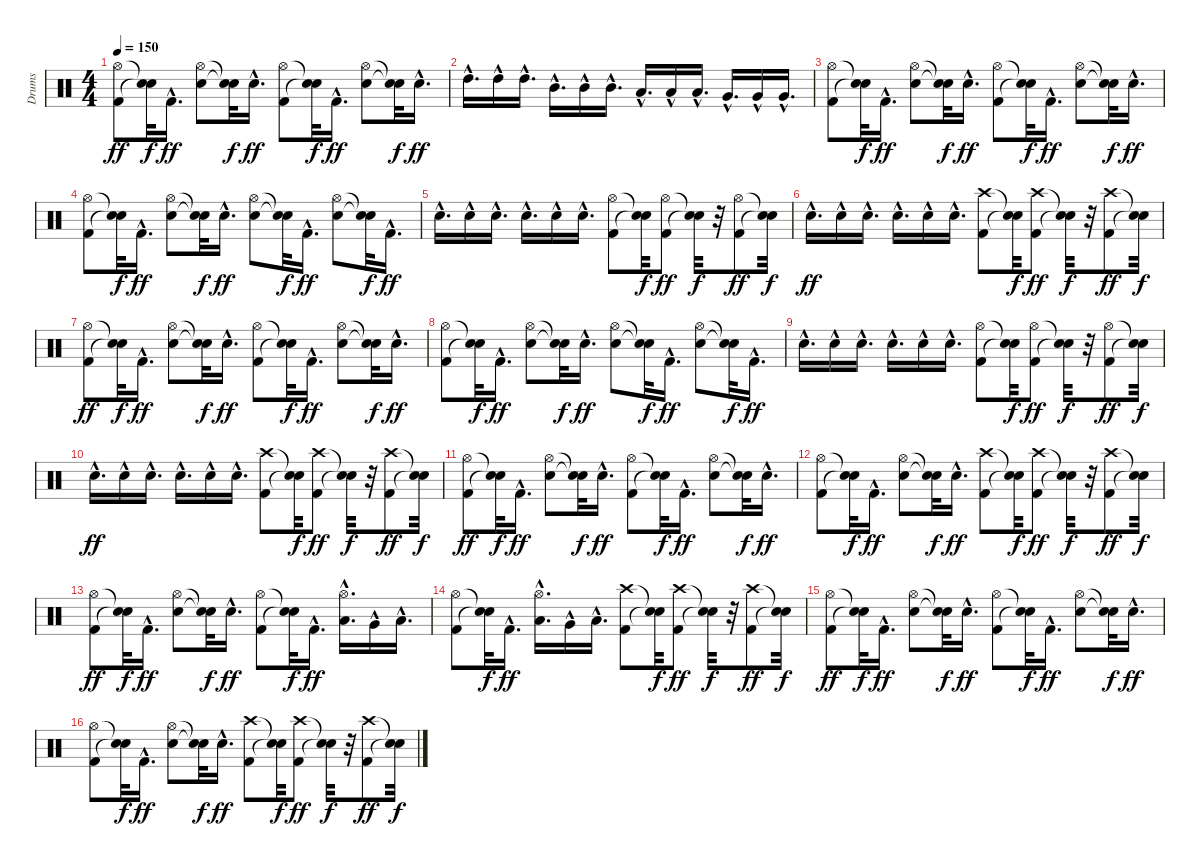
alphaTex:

\track ("Drums" "Drums") {instrument percussion}
\staff {score}
\articulation defaults
\ts (4 4)
\tempo 150
\clef neutral
\ks c
("Kick (hit) 2" "Hi-Hat (open)").8{dy ff} ("Snare (hit)"{t} "Snare (hit)"{t}).32{dy f} "Kick (hit) 2"{hac}.16{d dy ff} ("Snare (hit) 2" "Hi-Hat (open)").8 ("Snare (hit)"{t} "Snare (hit)"{t}).32{dy f} "Snare (hit) 2"{hac}.16{d dy ff} ("Kick (hit) 2" "Hi-Hat (open)").8 ("Snare (hit)"{t} "Snare (hit)"{t}).32{dy f} "Kick (hit) 2"{hac}.16{d dy ff} ("Snare (hit) 2" "Hi-Hat (open)").8 ("Snare (hit)"{t} "Snare (hit)"{t}).32{dy f} "Snare (hit) 2"{hac}.16{d dy ff} |
"High Tom (hit)"{hac}.16{d} "High Tom (hit)"{hac}.16 "High Tom (hit)"{hac}.16{d} "Mid Tom (hit)"{hac}.16{d} "Mid Tom (hit)"{hac}.16 "Mid Tom (hit)"{hac}.16{d} "Low Tom (hit)"{hac}.16{d} "Low Tom (hit)"{hac}.16 "Low Tom (hit)"{hac}.16{d} "Very Low Tom (hit)"{hac}.16{d} "Very Low Tom (hit)"{hac}.16 "Very Low Tom (hit)"{hac}.16{d} |
("Kick (hit) 2" "Hi-Hat (open)").8 ("Snare (hit)"{t} "Snare (hit)"{t}).32{dy f} "Kick (hit) 2"{hac}.16{d dy ff} ("Snare (hit) 2" "Hi-Hat (open)").8 ("Snare (hit)"{t} "Snare (hit)"{t}).32{dy f} "Snare (hit) 2"{hac}.16{d dy ff} ("Kick (hit) 2" "Hi-Hat (open)").8 ("Snare (hit)"{t} "Snare (hit)"{t}).32{dy f} "Kick (hit) 2"{hac}.16{d dy ff} ("Snare (hit) 2" "Hi-Hat (open)").8 ("Snare (hit)"{t} "Snare (hit)"{t}).32{dy f} "Snare (hit) 2"{hac}.16{d dy ff} |
("Kick (hit) 2" "Hi-Hat (open)").8 ("Snare (hit)"{t} "Snare (hit)"{t}).32{dy f} "Kick (hit) 2"{hac}.16{d dy ff} ("Snare (hit) 2" "Hi-Hat (open)").8 ("Snare (hit)"{t} "Snare (hit)"{t}).32{dy f} "Snare (hit) 2"{hac}.16{d dy ff} ("Snare (hit) 2" "Hi-Hat (open)").8 ("Snare (hit)"{t} "Snare (hit)"{t}).32{dy f} "Kick (hit) 2"{hac}.16{d dy ff} ("Snare (hit) 2" "Hi-Hat (open)").8 ("Snare (hit)"{t} "Snare (hit)"{t}).32{dy f} "Kick (hit) 2"{hac}.16{d dy ff} |
"Snare (hit) 2"{hac}.16{d} "Snare (hit) 2"{hac}.16 "Snare (hit) 2"{hac}.16{d} "Snare (hit) 2"{hac}.16{d} "Snare (hit) 2"{hac}.16 "Snare (hit) 2"{hac}.16{d} ("Kick (hit) 2" "Hi-Hat (open)").8 ("Snare (hit)"{t} "Snare (hit)"{t}).32{dy f} ("Kick (hit) 2" "Hi-Hat (open)").8{dy ff} ("Snare (hit)"{t} "Snare (hit)"{t}).32{dy f} r.32 ("Kick (hit) 2" "Hi-Hat (open)").8{dy ff} ("Snare (hit)"{t} "Snare (hit)"{t}).32{dy f} |
"Snare (hit) 2"{hac}.16{d dy ff} "Snare (hit) 2"{hac}.16 "Snare (hit) 2"{hac}.16{d} "Snare (hit) 2"{hac}.16{d} "Snare (hit) 2"{hac}.16 "Snare (hit) 2"{hac}.16{d} ("Kick (hit) 2" "Crash high (hit)").8 ("Snare (hit)"{t} "Snare (hit)"{t}).32{dy f} ("Kick (hit) 2" "Crash high (hit)").8{dy ff} ("Snare (hit)"{t} "Snare (hit)"{t}).32{dy f} r.32 ("Kick (hit) 2" "Crash high (hit)").8{dy ff} ("Snare (hit)"{t} "Snare (hit)"{t}).32{dy f} |
("Kick (hit) 2" "Hi-Hat (open)").8{dy ff} ("Snare (hit)"{t} "Snare (hit)"{t}).32{dy f} "Kick (hit) 2"{hac}.16{d dy ff} ("Snare (hit) 2" "Hi-Hat (open)").8 ("Snare (hit)"{t} "Snare (hit)"{t}).32{dy f} "Snare (hit) 2"{hac}.16{d dy ff} ("Kick (hit) 2" "Hi-Hat (open)").8 ("Snare (hit)"{t} "Snare (hit)"{t}).32{dy f} "Kick (hit) 2"{hac}.16{d dy ff} ("Snare (hit) 2" "Hi-Hat (open)").8 ("Snare (hit)"{t} "Snare (hit)"{t}).32{dy f} "Snare (hit) 2"{hac}.16{d dy ff} |
("Kick (hit) 2" "Hi-Hat (open)").8 ("Snare (hit)"{t} "Snare (hit)"{t}).32{dy f} "Kick (hit) 2"{hac}.16{d dy ff} ("Snare (hit) 2" "Hi-Hat (open)").8 ("Snare (hit)"{t} "Snare (hit)"{t}).32{dy f} "Snare (hit) 2"{hac}.16{d dy ff} ("Snare (hit) 2" "Hi-Hat (open)").8 ("Snare (hit)"{t} "Snare (hit)"{t}).32{dy f} "Kick (hit) 2"{hac}.16{d dy ff} ("Snare (hit) 2" "Hi-Hat (open)").8 ("Snare (hit)"{t} "Snare (hit)"{t}).32{dy f} "Kick (hit) 2"{hac}.16{d dy ff} |
"Snare (hit) 2"{hac}.16{d} "Snare (hit) 2"{hac}.16 "Snare (hit) 2"{hac}.16{d} "Snare (hit) 2"{hac}.16{d} "Snare (hit) 2"{hac}.16 "Snare (hit) 2"{hac}.16{d} ("Kick (hit) 2" "Hi-Hat (open)").8 ("Snare (hit)"{t} "Snare (hit)"{t}).32{dy f} ("Kick (hit) 2" "Hi-Hat (open)").8{dy ff} ("Snare (hit)"{t} "Snare (hit)"{t}).32{dy f} r.32 ("Kick (hit) 2" "Hi-Hat (open)").8{dy ff} ("Snare (hit)"{t} "Snare (hit)"{t}).32{dy f} |
"Snare (hit) 2"{hac}.16{d dy ff} "Snare (hit) 2"{hac}.16 "Snare (hit) 2"{hac}.16{d} "Snare (hit) 2"{hac}.16{d} "Snare (hit) 2"{hac}.16 "Snare (hit) 2"{hac}.16{d} ("Kick (hit) 2" "Crash high (hit)").8 ("Snare (hit)"{t} "Snare (hit)"{t}).32{dy f} ("Kick (hit) 2" "Crash high (hit)").8{dy ff} ("Snare (hit)"{t} "Snare (hit)"{t}).32{dy f} r.32 ("Kick (hit) 2" "Crash high (hit)").8{dy ff} ("Snare (hit)"{t} "Snare (hit)"{t}).32{dy f} |
("Kick (hit) 2" "Hi-Hat (open)").8{dy ff} ("Snare (hit)"{t} "Snare (hit)"{t}).32{dy f} "Kick (hit) 2"{hac}.16{d dy ff} ("Snare (hit) 2" "Hi-Hat (open)").8 ("Snare (hit)"{t} "Snare (hit)"{t}).32{dy f} "Snare (hit) 2"{hac}.16{d dy ff} ("Kick (hit) 2" "Hi-Hat (open)").8 ("Snare (hit)"{t} "Snare (hit)"{t}).32{dy f} "Kick (hit) 2"{hac}.16{d dy ff} ("Snare (hit) 2" "Hi-Hat (open)").8 ("Snare (hit)"{t} "Snare (hit)"{t}).32{dy f} "Snare (hit) 2"{hac}.16{d dy ff} |
("Kick (hit) 2" "Hi-Hat (open)").8 ("Snare (hit)"{t} "Snare (hit)"{t}).32{dy f} "Kick (hit) 2"{hac}.16{d dy ff} ("Snare (hit) 2" "Hi-Hat (open)").8 ("Snare (hit)"{t} "Snare (hit)"{t}).32{dy f} "Snare (hit) 2"{hac}.16{d dy ff} ("Kick (hit) 2" "Crash high (hit)").8 ("Snare (hit)"{t} "Snare (hit)"{t}).32{dy f} ("Kick (hit) 2" "Crash high (hit)").8{dy ff} ("Snare (hit)"{t} "Snare (hit)"{t}).32{dy f} r.32 ("Kick (hit) 2" "Crash high (hit)").8{dy ff} ("Snare (hit)"{t} "Snare (hit)"{t}).32{dy f} |
("Kick (hit) 2" "Hi-Hat (open)").8{dy ff} ("Snare (hit)"{t} "Snare (hit)"{t}).32{dy f} "Kick (hit) 2"{hac}.16{d dy ff} ("Snare (hit) 2" "Hi-Hat (open)").8 ("Snare (hit)"{t} "Snare (hit)"{t}).32{dy f} "Snare (hit) 2"{hac}.16{d dy ff} ("Kick (hit) 2" "Hi-Hat (open)").8 ("Snare (hit)"{t} "Snare (hit)"{t}).32{dy f} "Kick (hit) 2"{hac}.16{d dy ff} ("Low Tom (hit)"{hac} "Hi-Hat (open)"{hac}).16{d} "Very Low Tom (hit)"{hac}.16 "Low Floor Tom (hit)"{hac}.16{d} |
("Kick (hit) 2" "Hi-Hat (open)").8 ("Snare (hit)"{t} "Snare (hit)"{t}).32{dy f} "Kick (hit) 2"{hac}.16{d dy ff} ("Low Tom (hit)"{hac} "Hi-Hat (open)"{hac}).16{d} "Very Low Tom (hit)"{hac}.16 "Low Floor Tom (hit)"{hac}.16{d} ("Kick (hit) 2" "Crash high (hit)").8 ("Snare (hit)"{t} "Snare (hit)"{t}).32{dy f} ("Kick (hit) 2" "Crash high (hit)").8{dy ff} ("Snare (hit)"{t} "Snare (hit)"{t}).32{dy f} r.32 ("Kick (hit) 2" "Crash high (hit)").8{dy ff} ("Snare (hit)"{t} "Snare (hit)"{t}).32{dy f} |
("Kick (hit) 2" "Hi-Hat (open)").8{dy ff} ("Snare (hit)"{t} "Snare (hit)"{t}).32{dy f} "Kick (hit) 2"{hac}.16{d dy ff} ("Snare (hit) 2" "Hi-Hat (open)").8 ("Snare (hit)"{t} "Snare (hit)"{t}).32{dy f} "Snare (hit) 2"{hac}.16{d dy ff} ("Kick (hit) 2" "Hi-Hat (open)").8 ("Snare (hit)"{t} "Snare (hit)"{t}).32{dy f} "Kick (hit) 2"{hac}.16{d dy ff} ("Snare (hit) 2" "Hi-Hat (open)").8 ("Snare (hit)"{t} "Snare (hit)"{t}).32{dy f} "Snare (hit) 2"{hac}.16{d dy ff} |
("Kick (hit) 2" "Hi-Hat (open)").8 ("Snare (hit)"{t} "Snare (hit)"{t}).32{dy f} "Kick (hit) 2"{hac}.16{d dy ff} ("Snare (hit) 2" "Hi-Hat (open)").8 ("Snare (hit)"{t} "Snare (hit)"{t}).32{dy f} "Snare (hit) 2"{hac}.16{d dy ff} ("Kick (hit) 2" "Crash high (hit)").8 ("Snare (hit)"{t} "Snare (hit)"{t}).32{dy f} ("Kick (hit) 2" "Crash high (hit)").8{dy ff} ("Snare (hit)"{t} "Snare (hit)"{t}).32{dy f} r.32 ("Kick (hit) 2" "Crash high (hit)").8{dy ff} ("Snare (hit)"{t} "Snare (hit)"{t}).32{dy f}
